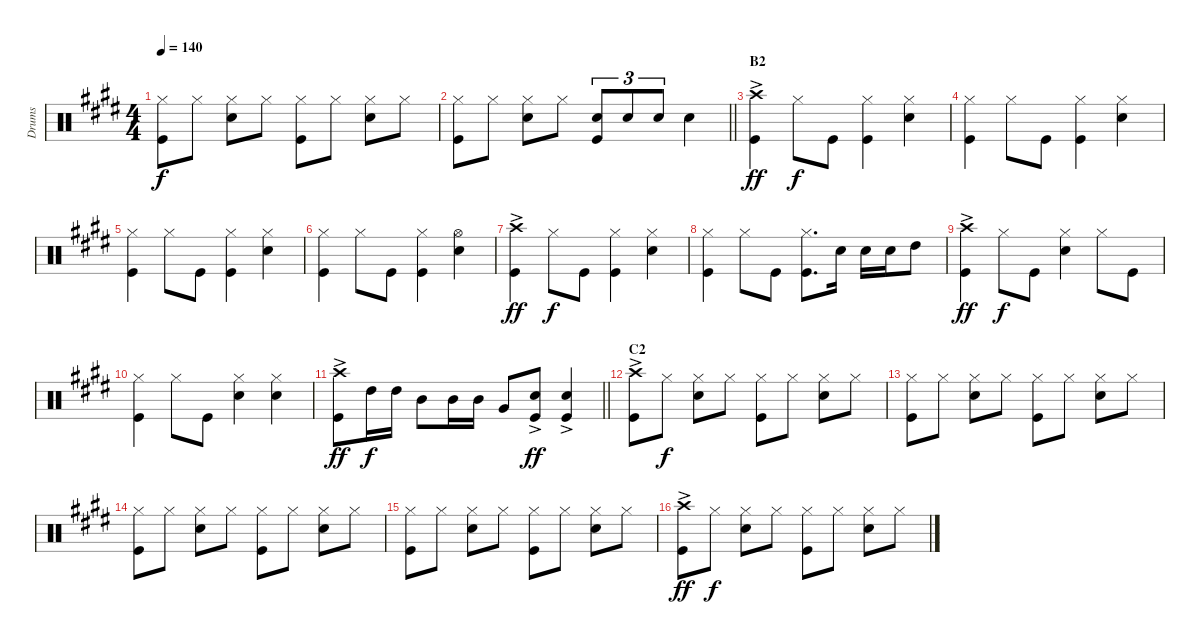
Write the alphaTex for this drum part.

\track ("Drums" "Drums") {instrument percussion}
\staff {score}
\articulation defaults
\ts (4 4)
\tempo 140
\clef neutral
\ks e
("Kick (hit)" "Hi-Hat (closed)").8{dy f} "Hi-Hat (closed)".8 ("Snare (hit) 2" "Hi-Hat (closed)").8 "Hi-Hat (closed)".8 ("Kick (hit)" "Hi-Hat (closed)").8 "Hi-Hat (closed)".8 ("Snare (hit) 2" "Hi-Hat (closed)").8 "Hi-Hat (closed)".8 |
\barLineRight lightlight
("Kick (hit)" "Hi-Hat (closed)").8 "Hi-Hat (closed)".8 ("Hi-Hat (closed)" "Snare (hit) 2").8 "Hi-Hat (closed)".8 ("Snare (hit) 2" "Kick (hit)").8{tu (3 2)} "Snare (hit) 2".8{tu (3 2)} "Snare (hit) 2".8{tu (3 2)} "Snare (hit) 2".4 |
\section ("" "B2")
("Crash high (hit)"{ac} "Kick (hit)").4{dy ff} "Hi-Hat (closed)".8{dy f} "Kick (hit)".8 ("Kick (hit)" "Hi-Hat (closed)").4 ("Hi-Hat (closed)" "Snare (hit) 2").4 |
("Hi-Hat (closed)" "Kick (hit)").4 "Hi-Hat (closed)".8 "Kick (hit)".8 ("Kick (hit)" "Hi-Hat (closed)").4 ("Hi-Hat (closed)" "Snare (hit) 2").4 |
("Hi-Hat (closed)" "Kick (hit)").4 "Hi-Hat (closed)".8 "Kick (hit)".8 ("Kick (hit)" "Hi-Hat (closed)").4 ("Hi-Hat (closed)" "Snare (hit) 2").4 |
("Hi-Hat (closed)" "Kick (hit)").4 "Hi-Hat (closed)".8 "Kick (hit)".8 ("Kick (hit)" "Hi-Hat (closed)").4 ("Hi-Hat (open)" "Snare (hit) 2").4 |
("Crash high (hit)"{ac} "Kick (hit)").4{dy ff} "Hi-Hat (closed)".8{dy f} "Kick (hit)".8 ("Kick (hit)" "Hi-Hat (closed)").4 ("Hi-Hat (closed)" "Snare (hit) 2").4 |
("Hi-Hat (closed)" "Kick (hit)").4 "Hi-Hat (closed)".8 "Kick (hit)".8 ("Kick (hit)" "Hi-Hat (closed)").8{d} "Snare (hit) 2".16 "Snare (hit) 2".16 "Snare (hit) 2".16 "High Tom (hit)".8 |
("Crash high (hit)"{ac} "Kick (hit)").4{dy ff} "Hi-Hat (closed)".8{dy f} "Kick (hit)".8 ("Snare (hit) 2" "Hi-Hat (closed)").4 "Hi-Hat (closed)".8 "Kick (hit)".8 |
("Hi-Hat (closed)" "Kick (hit)").4 "Hi-Hat (closed)".8 "Kick (hit)".8 ("Hi-Hat (closed)" "Snare (hit) 2").4 ("Hi-Hat (closed)" "Snare (hit) 2").4 |
\barLineRight lightlight
("Crash high (hit)"{ac} "Kick (hit)").8{dy ff} "High Tom (hit)".16{dy f} "High Tom (hit)".16 "Mid Tom (hit)".8 "Mid Tom (hit)".16 "Mid Tom (hit)".16 "Very Low Tom (hit)".8 ("Snare (hit) 2"{ac} "Kick (hit)"{ac}).8{dy ff} ("Kick (hit)"{ac} "Snare (hit) 2"{ac}).4 |
\section ("" "C2")
("Crash high (hit)"{ac} "Kick (hit)").8 "Hi-Hat (closed)".8{dy f} ("Snare (hit) 2" "Hi-Hat (closed)").8 "Hi-Hat (closed)".8 ("Kick (hit)" "Hi-Hat (closed)").8 "Hi-Hat (closed)".8 ("Hi-Hat (closed)" "Snare (hit) 2").8 "Hi-Hat (closed)".8 |
("Hi-Hat (closed)" "Kick (hit)").8 "Hi-Hat (closed)".8 ("Snare (hit) 2" "Hi-Hat (closed)").8 "Hi-Hat (closed)".8 ("Kick (hit)" "Hi-Hat (closed)").8 "Hi-Hat (closed)".8 ("Hi-Hat (closed)" "Snare (hit) 2").8 "Hi-Hat (closed)".8 |
("Hi-Hat (closed)" "Kick (hit)").8 "Hi-Hat (closed)".8 ("Snare (hit) 2" "Hi-Hat (closed)").8 "Hi-Hat (closed)".8 ("Kick (hit)" "Hi-Hat (closed)").8 "Hi-Hat (closed)".8 ("Hi-Hat (closed)" "Snare (hit) 2").8 "Hi-Hat (closed)".8 |
("Hi-Hat (closed)" "Kick (hit)").8 "Hi-Hat (closed)".8 ("Snare (hit) 2" "Hi-Hat (closed)").8 "Hi-Hat (closed)".8 ("Kick (hit)" "Hi-Hat (closed)").8 "Hi-Hat (closed)".8 ("Hi-Hat (closed)" "Snare (hit) 2").8 "Hi-Hat (closed)".8 |
("Crash high (hit)"{ac} "Kick (hit)").8{dy ff} "Hi-Hat (closed)".8{dy f} ("Snare (hit) 2" "Hi-Hat (closed)").8 "Hi-Hat (closed)".8 ("Kick (hit)" "Hi-Hat (closed)").8 "Hi-Hat (closed)".8 ("Hi-Hat (closed)" "Snare (hit) 2").8 "Hi-Hat (closed)".8
